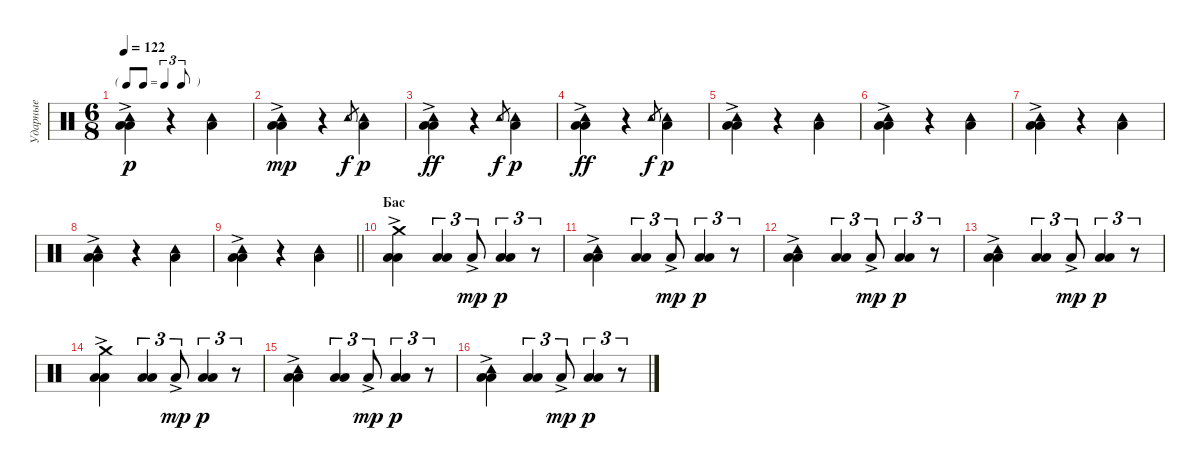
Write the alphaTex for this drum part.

\track ("Ударные" "Ударные") {instrument percussion}
\staff {score}
\articulation defaults
\ts (6 8)
\tf triplet8th
\tempo 122
\clef neutral
\ks c
("Low Floor Tom (hit)"{ac} "Low Tom (hit)" "Tambourine (hit)").4{dy p} r.4 ("Low Floor Tom (hit)" "Tambourine (hit)").4 |
("Tambourine (hit)"{ac} "Low Tom (hit)" "Low Floor Tom (hit)").4{dy mp} r.4 "Tambourine (hit)".8{gr dy f} ("Low Floor Tom (hit)" "Tambourine (hit)").4{dy p} |
("Low Floor Tom (hit)"{ac} "Low Tom (hit)" "Tambourine (hit)").4{dy ff} r.4 "Tambourine (hit)".8{gr dy f} ("Low Floor Tom (hit)" "Tambourine (hit)").4{dy p} |
("Low Floor Tom (hit)"{ac} "Low Tom (hit)" "Tambourine (hit)").4{dy ff} r.4 "Tambourine (hit)".8{gr dy f} ("Low Floor Tom (hit)" "Tambourine (hit)").4{dy p} |
("Low Floor Tom (hit)"{ac} "Low Tom (hit)" "Tambourine (hit)").4 r.4 ("Low Floor Tom (hit)" "Tambourine (hit)").4 |
("Low Floor Tom (hit)"{ac} "Low Tom (hit)" "Tambourine (hit)").4 r.4 ("Low Floor Tom (hit)" "Tambourine (hit)").4 |
("Low Floor Tom (hit)"{ac} "Low Tom (hit)" "Tambourine (hit)").4 r.4 ("Low Floor Tom (hit)" "Tambourine (hit)").4 |
("Low Floor Tom (hit)"{ac} "Low Tom (hit)" "Tambourine (hit)").4 r.4 ("Low Floor Tom (hit)" "Tambourine (hit)").4 |
\barLineRight lightlight
("Low Floor Tom (hit)"{ac} "Low Tom (hit)" "Tambourine (hit)").4 r.4 ("Low Floor Tom (hit)" "Tambourine (hit)").4 |
\section ("" "Бас ")
("Low Floor Tom (hit)"{ac} "Low Tom (hit)" "Crash medium (hit)").4 ("Low Floor Tom (hit)" "Low Tom (hit)").4{tu (3 2)} "Low Tom (hit)"{ac}.8{tu (3 2) dy mp} ("Low Floor Tom (hit)" "Low Tom (hit)").4{tu (3 2) dy p} r.8{tu (3 2)} |
("Low Floor Tom (hit)"{ac} "Low Tom (hit)" "Tambourine (hit)").4 ("Low Floor Tom (hit)" "Low Tom (hit)").4{tu (3 2)} "Low Tom (hit)"{ac}.8{tu (3 2) dy mp} ("Low Floor Tom (hit)" "Low Tom (hit)").4{tu (3 2) dy p} r.8{tu (3 2)} |
("Low Floor Tom (hit)"{ac} "Low Tom (hit)" "Tambourine (hit)").4 ("Low Floor Tom (hit)" "Low Tom (hit)").4{tu (3 2)} "Low Tom (hit)"{ac}.8{tu (3 2) dy mp} ("Low Floor Tom (hit)" "Low Tom (hit)").4{tu (3 2) dy p} r.8{tu (3 2)} |
("Low Floor Tom (hit)"{ac} "Low Tom (hit)" "Tambourine (hit)").4 ("Low Floor Tom (hit)" "Low Tom (hit)").4{tu (3 2)} "Low Tom (hit)"{ac}.8{tu (3 2) dy mp} ("Low Floor Tom (hit)" "Low Tom (hit)").4{tu (3 2) dy p} r.8{tu (3 2)} |
("Low Floor Tom (hit)"{ac} "Low Tom (hit)" "Crash medium (hit)").4 ("Low Floor Tom (hit)" "Low Tom (hit)").4{tu (3 2)} "Low Tom (hit)"{ac}.8{tu (3 2) dy mp} ("Low Floor Tom (hit)" "Low Tom (hit)").4{tu (3 2) dy p} r.8{tu (3 2)} |
("Low Floor Tom (hit)"{ac} "Low Tom (hit)" "Tambourine (hit)").4 ("Low Floor Tom (hit)" "Low Tom (hit)").4{tu (3 2)} "Low Tom (hit)"{ac}.8{tu (3 2) dy mp} ("Low Floor Tom (hit)" "Low Tom (hit)").4{tu (3 2) dy p} r.8{tu (3 2)} |
("Low Floor Tom (hit)"{ac} "Low Tom (hit)" "Tambourine (hit)").4 ("Low Floor Tom (hit)" "Low Tom (hit)").4{tu (3 2)} "Low Tom (hit)"{ac}.8{tu (3 2) dy mp} ("Low Floor Tom (hit)" "Low Tom (hit)").4{tu (3 2) dy p} r.8{tu (3 2)}
